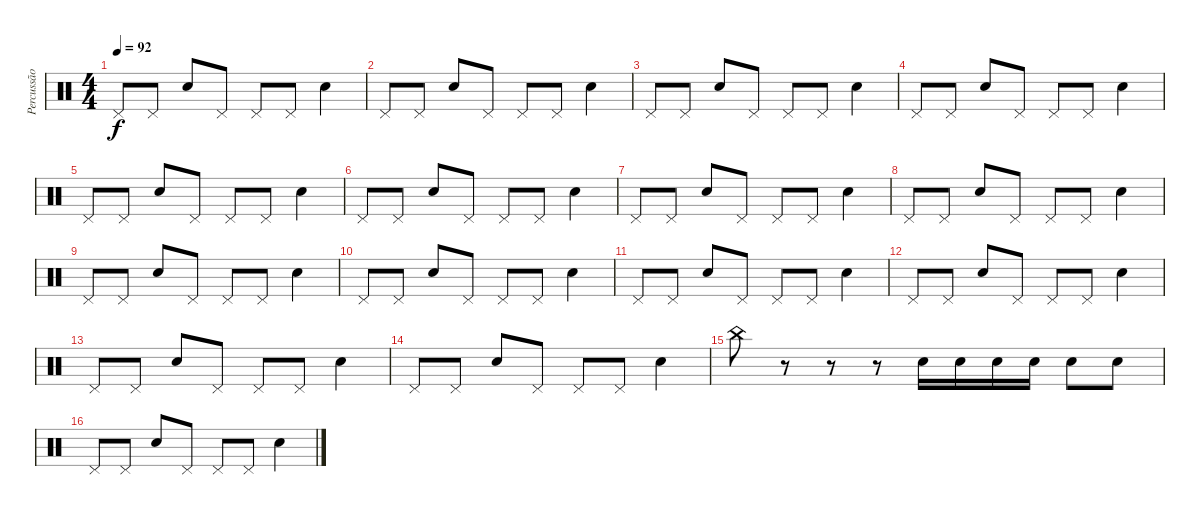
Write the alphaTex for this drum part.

\track ("Percussão" "Percussão") {instrument percussion}
\staff {score}
\articulation defaults
\ts (4 4)
\tempo 92
\clef neutral
\ks c "Pedal Hi-Hat (hit)".8{dy f} "Pedal Hi-Hat (hit)".8 "Electric Snare (hit)".8 "Pedal Hi-Hat (hit)".8 "Pedal Hi-Hat (hit)".8 "Pedal Hi-Hat (hit)".8 "Electric Snare (hit)".4
|
"Pedal Hi-Hat (hit)".8 "Pedal Hi-Hat (hit)".8 "Electric Snare (hit)".8 "Pedal Hi-Hat (hit)".8 "Pedal Hi-Hat (hit)".8 "Pedal Hi-Hat (hit)".8 "Electric Snare (hit)".4 |
"Pedal Hi-Hat (hit)".8 "Pedal Hi-Hat (hit)".8 "Electric Snare (hit)".8 "Pedal Hi-Hat (hit)".8 "Pedal Hi-Hat (hit)".8 "Pedal Hi-Hat (hit)".8 "Electric Snare (hit)".4 |
"Pedal Hi-Hat (hit)".8 "Pedal Hi-Hat (hit)".8 "Electric Snare (hit)".8 "Pedal Hi-Hat (hit)".8 "Pedal Hi-Hat (hit)".8 "Pedal Hi-Hat (hit)".8 "Electric Snare (hit)".4 |
"Pedal Hi-Hat (hit)".8 "Pedal Hi-Hat (hit)".8 "Electric Snare (hit)".8 "Pedal Hi-Hat (hit)".8 "Pedal Hi-Hat (hit)".8 "Pedal Hi-Hat (hit)".8 "Electric Snare (hit)".4 |
"Pedal Hi-Hat (hit)".8 "Pedal Hi-Hat (hit)".8 "Electric Snare (hit)".8 "Pedal Hi-Hat (hit)".8 "Pedal Hi-Hat (hit)".8 "Pedal Hi-Hat (hit)".8 "Electric Snare (hit)".4 |
"Pedal Hi-Hat (hit)".8 "Pedal Hi-Hat (hit)".8 "Electric Snare (hit)".8 "Pedal Hi-Hat (hit)".8 "Pedal Hi-Hat (hit)".8 "Pedal Hi-Hat (hit)".8 "Electric Snare (hit)".4 |
"Pedal Hi-Hat (hit)".8 "Pedal Hi-Hat (hit)".8 "Electric Snare (hit)".8 "Pedal Hi-Hat (hit)".8 "Pedal Hi-Hat (hit)".8 "Pedal Hi-Hat (hit)".8 "Electric Snare (hit)".4 |
"Pedal Hi-Hat (hit)".8 "Pedal Hi-Hat (hit)".8 "Electric Snare (hit)".8 "Pedal Hi-Hat (hit)".8 "Pedal Hi-Hat (hit)".8 "Pedal Hi-Hat (hit)".8 "Electric Snare (hit)".4 |
"Pedal Hi-Hat (hit)".8 "Pedal Hi-Hat (hit)".8 "Electric Snare (hit)".8 "Pedal Hi-Hat (hit)".8 "Pedal Hi-Hat (hit)".8 "Pedal Hi-Hat (hit)".8 "Electric Snare (hit)".4 |
"Pedal Hi-Hat (hit)".8 "Pedal Hi-Hat (hit)".8 "Electric Snare (hit)".8 "Pedal Hi-Hat (hit)".8 "Pedal Hi-Hat (hit)".8 "Pedal Hi-Hat (hit)".8 "Electric Snare (hit)".4 |
"Pedal Hi-Hat (hit)".8 "Pedal Hi-Hat (hit)".8 "Electric Snare (hit)".8 "Pedal Hi-Hat (hit)".8 "Pedal Hi-Hat (hit)".8 "Pedal Hi-Hat (hit)".8 "Electric Snare (hit)".4 |
"Pedal Hi-Hat (hit)".8 "Pedal Hi-Hat (hit)".8 "Electric Snare (hit)".8 "Pedal Hi-Hat (hit)".8 "Pedal Hi-Hat (hit)".8 "Pedal Hi-Hat (hit)".8 "Electric Snare (hit)".4 |
"Pedal Hi-Hat (hit)".8 "Pedal Hi-Hat (hit)".8 "Electric Snare (hit)".8 "Pedal Hi-Hat (hit)".8 "Pedal Hi-Hat (hit)".8 "Pedal Hi-Hat (hit)".8 "Electric Snare (hit)".4 |
"China (hit)".8 r.8 r.8 r.8 "Electric Snare (hit)".16 "Electric Snare (hit)".16 "Electric Snare (hit)".16 "Electric Snare (hit)".16 "Electric Snare (hit)".8 "Electric Snare (hit)".8 |
"Pedal Hi-Hat (hit)".8 "Pedal Hi-Hat (hit)".8 "Electric Snare (hit)".8 "Pedal Hi-Hat (hit)".8 "Pedal Hi-Hat (hit)".8 "Pedal Hi-Hat (hit)".8 "Electric Snare (hit)".4
